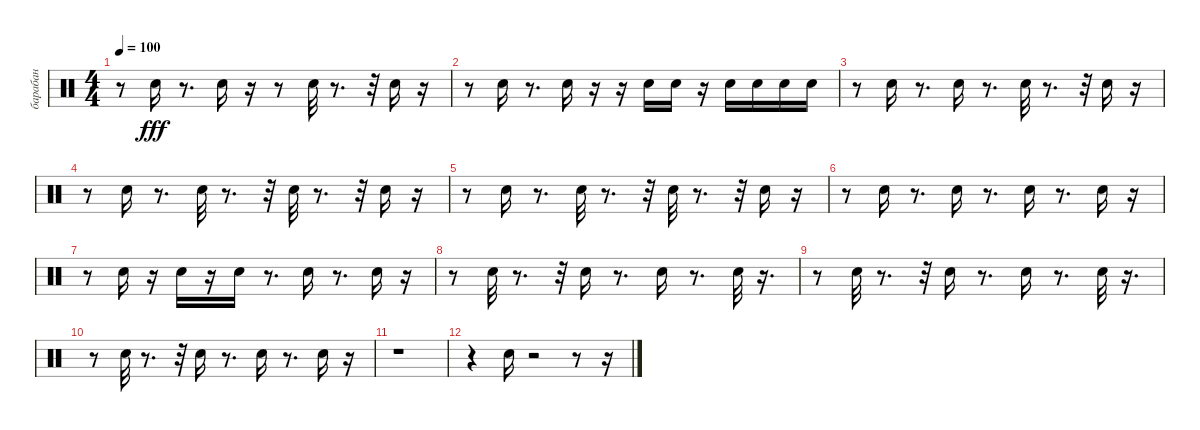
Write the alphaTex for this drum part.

\track ("барабан" "барабан") {instrument percussion}
\staff {score}
\articulation defaults
\ts (4 4)
\tempo 100
\clef neutral
\ks c
r.8{dy fff} "Snare (hit) 2".16 r.8{d} "Snare (hit) 2".16 r.16 r.8 "Snare (hit) 2".32 r.8{d} r.32 "Snare (hit) 2".16 r.16 |
r.8 "Snare (hit) 2".16 r.8{d} "Snare (hit) 2".16 r.16 r.16 "Snare (hit) 2".16 "Snare (hit) 2".16 r.16 "Snare (hit) 2".16 "Snare (hit) 2".16 "Snare (hit) 2".16 "Snare (hit) 2".16 |
r.8 "Snare (hit) 2".16 r.8{d} "Snare (hit) 2".16 r.8{d} "Snare (hit) 2".32 r.8{d} r.32 "Snare (hit) 2".16 r.16 |
r.8 "Snare (hit) 2".16 r.8{d} "Snare (hit) 2".32 r.8{d} r.32 "Snare (hit) 2".32 r.8{d} r.32 "Snare (hit) 2".16 r.16 |
r.8 "Snare (hit) 2".16 r.8{d} "Snare (hit) 2".32 r.8{d} r.32 "Snare (hit) 2".32 r.8{d} r.32 "Snare (hit) 2".16 r.16 |
r.8 "Snare (hit) 2".16 r.8{d} "Snare (hit) 2".16 r.8{d} "Snare (hit) 2".16 r.8{d} "Snare (hit) 2".16 r.16 |
r.8 "Snare (hit) 2".16 r.16 "Snare (hit) 2".16 r.16 "Snare (hit) 2".16 r.8{d} "Snare (hit) 2".16 r.8{d} "Snare (hit) 2".16 r.16 |
r.8 "Snare (hit) 2".32 r.8{d} r.32 "Snare (hit) 2".16 r.8{d} "Snare (hit) 2".16 r.8{d} "Snare (hit) 2".32 r.16{d} |
r.8 "Snare (hit) 2".32 r.8{d} r.32 "Snare (hit) 2".16 r.8{d} "Snare (hit) 2".16 r.8{d} "Snare (hit) 2".32 r.16{d} |
r.8 "Snare (hit) 2".32 r.8{d} r.32 "Snare (hit) 2".16 r.8{d} "Snare (hit) 2".16 r.8{d} "Snare (hit) 2".16 r.16 |
r.1 |
r.4 "Snare (hit) 2".16 r.2 r.8 r.16
